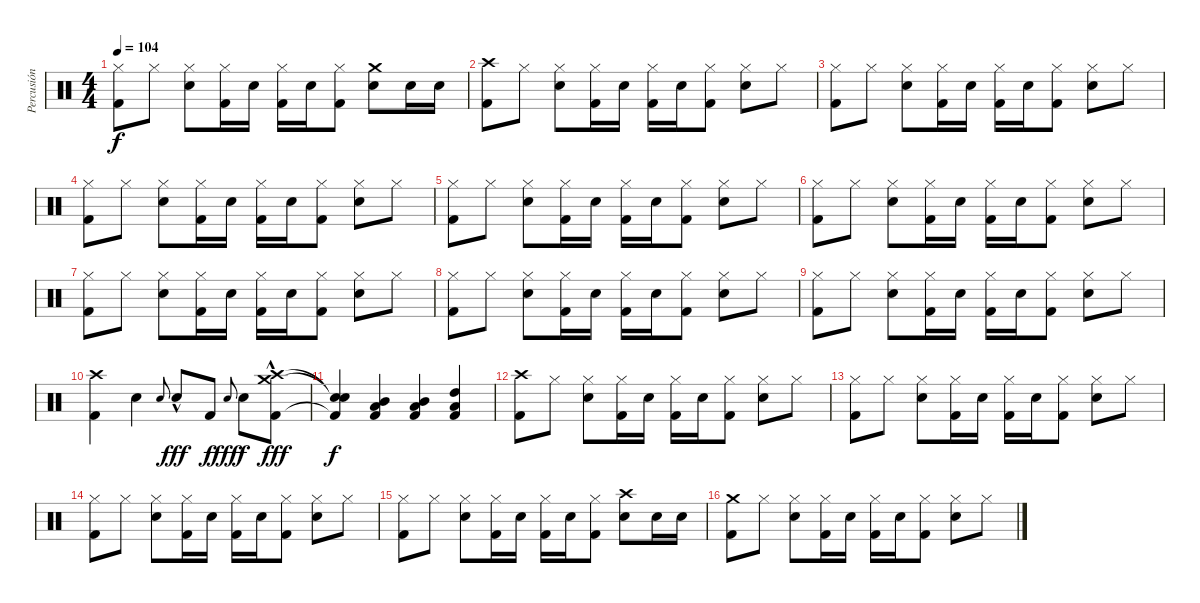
\track ("Percusión" "Percusión") {instrument percussion}
\staff {score}
\articulation defaults
\ts (4 4)
\tempo 104
\clef neutral
\ks c
("Hi-Hat (closed)" "Kick (hit) 2").8{dy f} "Hi-Hat (closed)".8 ("Hi-Hat (closed)" "Snare (hit) 2").8 ("Hi-Hat (closed)" "Kick (hit) 2").16 "Snare (hit) 2".16 ("Hi-Hat (closed)" "Kick (hit) 2").16 "Snare (hit) 2".16 ("Hi-Hat (closed)" "Kick (hit) 2").8 ("Crash medium (hit)" "Snare (hit) 2").8 "Snare (hit) 2".16 "Snare (hit) 2".16 |
("Crash high (hit)" "Kick (hit) 2").8 "Hi-Hat (closed)".8 ("Hi-Hat (closed)" "Snare (hit) 2").8 ("Hi-Hat (closed)" "Kick (hit) 2").16 "Snare (hit) 2".16 ("Hi-Hat (closed)" "Kick (hit) 2").16 "Snare (hit) 2".16 ("Hi-Hat (closed)" "Kick (hit) 2").8 ("Hi-Hat (closed)" "Snare (hit) 2").8 "Hi-Hat (closed)".8 |
("Hi-Hat (closed)" "Kick (hit) 2").8 "Hi-Hat (closed)".8 ("Hi-Hat (closed)" "Snare (hit) 2").8 ("Hi-Hat (closed)" "Kick (hit) 2").16 "Snare (hit) 2".16 ("Hi-Hat (closed)" "Kick (hit) 2").16 "Snare (hit) 2".16 ("Hi-Hat (closed)" "Kick (hit) 2").8 ("Hi-Hat (closed)" "Snare (hit) 2").8 "Hi-Hat (closed)".8 |
("Hi-Hat (closed)" "Kick (hit) 2").8 "Hi-Hat (closed)".8 ("Hi-Hat (closed)" "Snare (hit) 2").8 ("Hi-Hat (closed)" "Kick (hit) 2").16 "Snare (hit) 2".16 ("Hi-Hat (closed)" "Kick (hit) 2").16 "Snare (hit) 2".16 ("Hi-Hat (closed)" "Kick (hit) 2").8 ("Hi-Hat (closed)" "Snare (hit) 2").8 "Hi-Hat (closed)".8 |
("Hi-Hat (closed)" "Kick (hit) 2").8 "Hi-Hat (closed)".8 ("Hi-Hat (closed)" "Snare (hit) 2").8 ("Hi-Hat (closed)" "Kick (hit) 2").16 "Snare (hit) 2".16 ("Hi-Hat (closed)" "Kick (hit) 2").16 "Snare (hit) 2".16 ("Hi-Hat (closed)" "Kick (hit) 2").8 ("Hi-Hat (closed)" "Snare (hit) 2").8 "Hi-Hat (closed)".8 |
("Hi-Hat (closed)" "Kick (hit) 2").8 "Hi-Hat (closed)".8 ("Hi-Hat (closed)" "Snare (hit) 2").8 ("Hi-Hat (closed)" "Kick (hit) 2").16 "Snare (hit) 2".16 ("Hi-Hat (closed)" "Kick (hit) 2").16 "Snare (hit) 2".16 ("Hi-Hat (closed)" "Kick (hit) 2").8 ("Hi-Hat (closed)" "Snare (hit) 2").8 "Hi-Hat (closed)".8 |
("Hi-Hat (closed)" "Kick (hit) 2").8 "Hi-Hat (closed)".8 ("Hi-Hat (closed)" "Snare (hit) 2").8 ("Hi-Hat (closed)" "Kick (hit) 2").16 "Snare (hit) 2".16 ("Hi-Hat (closed)" "Kick (hit) 2").16 "Snare (hit) 2".16 ("Hi-Hat (closed)" "Kick (hit) 2").8 ("Hi-Hat (closed)" "Snare (hit) 2").8 "Hi-Hat (closed)".8 |
("Hi-Hat (closed)" "Kick (hit) 2").8 "Hi-Hat (closed)".8 ("Hi-Hat (closed)" "Snare (hit) 2").8 ("Hi-Hat (closed)" "Kick (hit) 2").16 "Snare (hit) 2".16 ("Hi-Hat (closed)" "Kick (hit) 2").16 "Snare (hit) 2".16 ("Hi-Hat (closed)" "Kick (hit) 2").8 ("Hi-Hat (closed)" "Snare (hit) 2").8 "Hi-Hat (closed)".8 |
("Hi-Hat (closed)" "Kick (hit) 2").8 "Hi-Hat (closed)".8 ("Hi-Hat (closed)" "Snare (hit) 2").8 ("Hi-Hat (closed)" "Kick (hit) 2").16 "Snare (hit) 2".16 ("Hi-Hat (closed)" "Kick (hit) 2").16 "Snare (hit) 2".16 ("Hi-Hat (closed)" "Kick (hit) 2").8 ("Hi-Hat (closed)" "Snare (hit) 2").8 "Hi-Hat (closed)".8 |
("Crash high (hit)" "Kick (hit) 2").4 "Snare (hit) 2".4 "Snare (hit) 2".8{gr onbeat} "Snare (hit) 2"{hac}.8{dy fff} "Kick (hit) 2".8{dy f} "Snare (hit) 2".8{gr onbeat dy fff} "Snare (hit) 2".8{dy f} ("Crash high (hit)"{hac} "Crash medium (hit)"{hac} "Kick (hit) 2").8{dy fff} |
("Snare (hit)"{t} "Snare (hit)"{t} "Kick (hit) 2"{t}).4{dy f} ("Mid Tom (hit)" "Low Tom (hit)" "Kick (hit) 2").4 ("Mid Tom (hit)" "Low Tom (hit)" "Kick (hit) 2").4 ("High Tom (hit)" "Low Tom (hit)" "Kick (hit) 2").4 |
("Crash high (hit)" "Kick (hit) 2").8 "Hi-Hat (closed)".8 ("Hi-Hat (closed)" "Snare (hit) 2").8 ("Hi-Hat (closed)" "Kick (hit) 2").16 "Snare (hit) 2".16 ("Hi-Hat (closed)" "Kick (hit) 2").16 "Snare (hit) 2".16 ("Hi-Hat (closed)" "Kick (hit) 2").8 ("Hi-Hat (closed)" "Snare (hit) 2").8 "Hi-Hat (closed)".8 |
("Hi-Hat (closed)" "Kick (hit) 2").8 "Hi-Hat (closed)".8 ("Hi-Hat (closed)" "Snare (hit) 2").8 ("Hi-Hat (closed)" "Kick (hit) 2").16 "Snare (hit) 2".16 ("Hi-Hat (closed)" "Kick (hit) 2").16 "Snare (hit) 2".16 ("Hi-Hat (closed)" "Kick (hit) 2").8 ("Hi-Hat (closed)" "Snare (hit) 2").8 "Hi-Hat (closed)".8 |
("Hi-Hat (closed)" "Kick (hit) 2").8 "Hi-Hat (closed)".8 ("Hi-Hat (closed)" "Snare (hit) 2").8 ("Hi-Hat (closed)" "Kick (hit) 2").16 "Snare (hit) 2".16 ("Hi-Hat (closed)" "Kick (hit) 2").16 "Snare (hit) 2".16 ("Hi-Hat (closed)" "Kick (hit) 2").8 ("Hi-Hat (closed)" "Snare (hit) 2").8 "Hi-Hat (closed)".8 |
("Hi-Hat (closed)" "Kick (hit) 2").8 "Hi-Hat (closed)".8 ("Hi-Hat (closed)" "Snare (hit) 2").8 ("Hi-Hat (closed)" "Kick (hit) 2").16 "Snare (hit) 2".16 ("Hi-Hat (closed)" "Kick (hit) 2").16 "Snare (hit) 2".16 ("Hi-Hat (closed)" "Kick (hit) 2").8 ("Crash high (hit)" "Snare (hit) 2").8 "Snare (hit) 2".16 "Snare (hit) 2".16 |
("Crash medium (hit)" "Kick (hit) 2").8 "Hi-Hat (closed)".8 ("Hi-Hat (closed)" "Snare (hit) 2").8 ("Hi-Hat (closed)" "Kick (hit) 2").16 "Snare (hit) 2".16 ("Hi-Hat (closed)" "Kick (hit) 2").16 "Snare (hit) 2".16 ("Hi-Hat (closed)" "Kick (hit) 2").8 ("Hi-Hat (closed)" "Snare (hit) 2").8 "Hi-Hat (closed)".8
